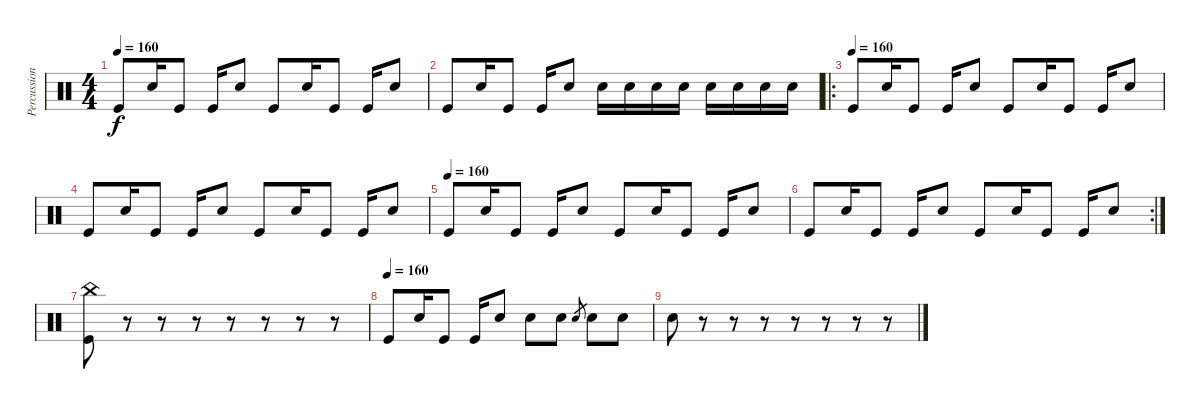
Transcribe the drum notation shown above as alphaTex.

\track ("Percussions" "Percussion") {instrument percussion}
\staff {score}
\articulation defaults
\ts (4 4)
\tempo 160
\clef neutral
\ks c "Kick (hit)".8{dy f} "Snare (hit) 2".16 "Kick (hit)".8 "Kick (hit)".16 "Snare (hit) 2".8 "Kick (hit)".8 "Snare (hit) 2".16 "Kick (hit)".8 "Kick (hit)".16 "Snare (hit) 2".8
|
"Kick (hit)".8 "Snare (hit) 2".16 "Kick (hit)".8 "Kick (hit)".16 "Snare (hit) 2".8 "Snare (hit) 2".16 "Snare (hit) 2".16 "Snare (hit) 2".16 "Snare (hit) 2".16 "Snare (hit) 2".16 "Snare (hit) 2".16 "Snare (hit) 2".16 "Snare (hit) 2".16 |
\ro
\tempo (160)
"Kick (hit)".8 "Snare (hit) 2".16 "Kick (hit)".8 "Kick (hit)".16 "Snare (hit) 2".8 "Kick (hit)".8 "Snare (hit) 2".16 "Kick (hit)".8 "Kick (hit)".16 "Snare (hit) 2".8 |
"Kick (hit)".8 "Snare (hit) 2".16 "Kick (hit)".8 "Kick (hit)".16 "Snare (hit) 2".8 "Kick (hit)".8 "Snare (hit) 2".16 "Kick (hit)".8 "Kick (hit)".16 "Snare (hit) 2".8 |
\tempo (160)
"Kick (hit)".8 "Snare (hit) 2".16 "Kick (hit)".8 "Kick (hit)".16 "Snare (hit) 2".8 "Kick (hit)".8 "Snare (hit) 2".16 "Kick (hit)".8 "Kick (hit)".16 "Snare (hit) 2".8 |
\rc 2 "Kick (hit)".8 "Snare (hit) 2".16 "Kick (hit)".8 "Kick (hit)".16 "Snare (hit) 2".8 "Kick (hit)".8 "Snare (hit) 2".16 "Kick (hit)".8 "Kick (hit)".16 "Snare (hit) 2".8
|
("China (hit)" "Kick (hit)").8 r.8 r.8 r.8 r.8 r.8 r.8 r.8 |
\tempo (160)
"Kick (hit)".8 "Snare (hit) 2".16 "Kick (hit)".8 "Kick (hit)".16 "Snare (hit) 2".8 "Snare (hit) 2".8 "Snare (hit) 2".8 "Snare (hit) 2".8{gr} "Snare (hit) 2".8 "Snare (hit) 2".8 |
"Snare (hit) 2".8 r.8 r.8 r.8 r.8 r.8 r.8 r.8
